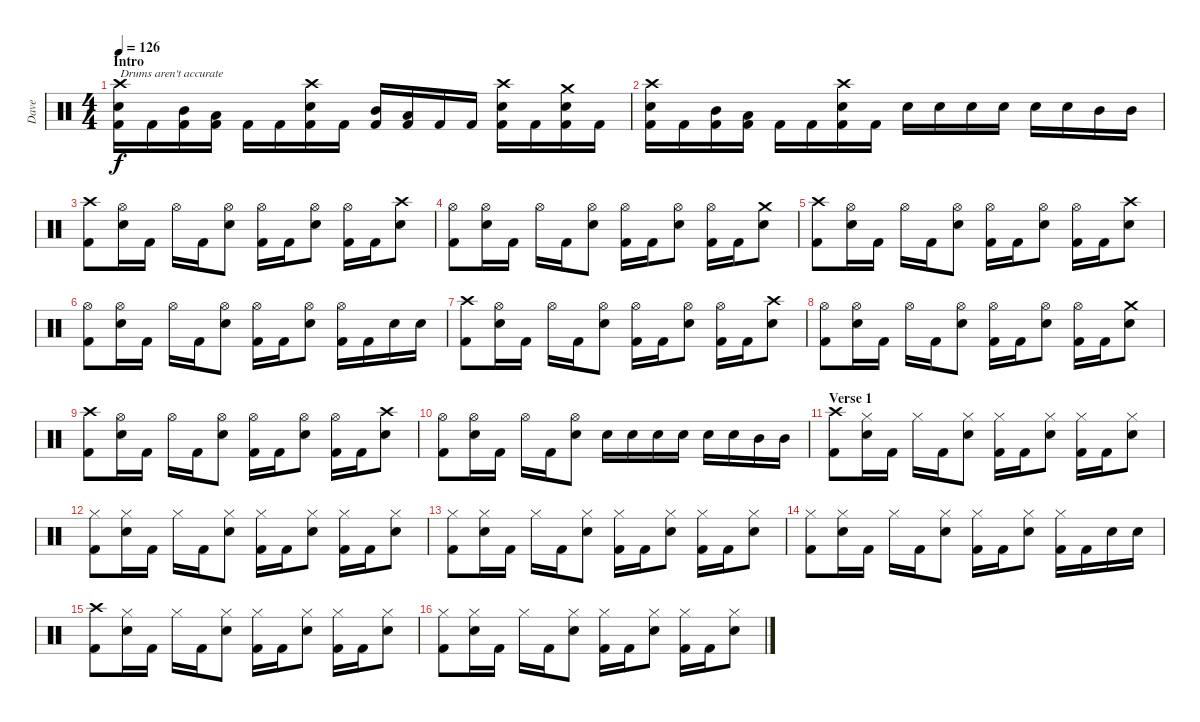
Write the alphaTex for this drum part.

\track ("Dave" "Dave") {instrument percussion}
\staff {score}
\articulation defaults
\ts (4 4)
\section ("" "Intro")
\tempo 126
\clef neutral
\ks c
("Kick (hit) 2" "Electric Snare (hit)" "Crash high (hit)").16{txt "Drums aren't accurate" dy f} "Kick (hit) 2".16 ("Kick (hit) 2" "Mid Tom (hit)").16 ("Kick (hit) 2" "Low Tom (hit)").16 "Kick (hit) 2".16 "Kick (hit) 2".16 ("Kick (hit) 2" "Electric Snare (hit)" "Crash high (hit)").16 "Kick (hit) 2".16 ("Kick (hit) 2" "Mid Tom (hit)").16 ("Kick (hit) 2" "Low Tom (hit)").16 "Kick (hit) 2".16 "Kick (hit) 2".16 ("Kick (hit) 2" "Electric Snare (hit)" "Crash high (hit)").16 "Kick (hit) 2".16 ("Kick (hit) 2" "Electric Snare (hit)" "Crash medium (hit)").16 "Kick (hit) 2".16 |
("Kick (hit) 2" "Electric Snare (hit)" "Crash high (hit)").16 "Kick (hit) 2".16 ("Kick (hit) 2" "Mid Tom (hit)").16 ("Kick (hit) 2" "Low Tom (hit)").16 "Kick (hit) 2".16 "Kick (hit) 2".16 ("Kick (hit) 2" "Electric Snare (hit)" "Crash high (hit)").16 "Kick (hit) 2".16 "Electric Snare (hit)".16 "Electric Snare (hit)".16 "Electric Snare (hit)".16 "Electric Snare (hit)".16 "Electric Snare (hit)".16 "Electric Snare (hit)".16 "Mid Tom (hit)".16 "Mid Tom (hit)".16 |
("Kick (hit) 2" "Crash high (hit)").8 ("Electric Snare (hit)" "Hi-Hat (open)").16 "Kick (hit) 2".16 "Hi-Hat (open)".16 "Kick (hit) 2".16 ("Electric Snare (hit)" "Hi-Hat (open)").8 ("Kick (hit) 2" "Hi-Hat (open)").16 "Kick (hit) 2".16 ("Electric Snare (hit)" "Hi-Hat (open)").8 ("Kick (hit) 2" "Hi-Hat (open)").16 "Kick (hit) 2".16 ("Electric Snare (hit)" "Crash high (hit)").8 |
("Kick (hit) 2" "Hi-Hat (open)").8 ("Electric Snare (hit)" "Hi-Hat (open)").16 "Kick (hit) 2".16 "Hi-Hat (open)".16 "Kick (hit) 2".16 ("Electric Snare (hit)" "Hi-Hat (open)").8 ("Kick (hit) 2" "Hi-Hat (open)").16 "Kick (hit) 2".16 ("Electric Snare (hit)" "Hi-Hat (open)").8 ("Kick (hit) 2" "Hi-Hat (open)").16 "Kick (hit) 2".16 ("Electric Snare (hit)" "Crash medium (hit)").8 |
("Kick (hit) 2" "Crash high (hit)").8 ("Electric Snare (hit)" "Hi-Hat (open)").16 "Kick (hit) 2".16 "Hi-Hat (open)".16 "Kick (hit) 2".16 ("Electric Snare (hit)" "Hi-Hat (open)").8 ("Kick (hit) 2" "Hi-Hat (open)").16 "Kick (hit) 2".16 ("Electric Snare (hit)" "Hi-Hat (open)").8 ("Kick (hit) 2" "Hi-Hat (open)").16 "Kick (hit) 2".16 ("Electric Snare (hit)" "Crash high (hit)").8 |
("Kick (hit) 2" "Hi-Hat (open)").8 ("Electric Snare (hit)" "Hi-Hat (open)").16 "Kick (hit) 2".16 "Hi-Hat (open)".16 "Kick (hit) 2".16 ("Electric Snare (hit)" "Hi-Hat (open)").8 ("Kick (hit) 2" "Hi-Hat (open)").16 "Kick (hit) 2".16 ("Electric Snare (hit)" "Hi-Hat (open)").8 ("Kick (hit) 2" "Hi-Hat (open)").16 "Kick (hit) 2".16 "Electric Snare (hit)".16 "Electric Snare (hit)".16 |
("Kick (hit) 2" "Crash high (hit)").8 ("Electric Snare (hit)" "Hi-Hat (open)").16 "Kick (hit) 2".16 "Hi-Hat (open)".16 "Kick (hit) 2".16 ("Electric Snare (hit)" "Hi-Hat (open)").8 ("Kick (hit) 2" "Hi-Hat (open)").16 "Kick (hit) 2".16 ("Electric Snare (hit)" "Hi-Hat (open)").8 ("Kick (hit) 2" "Hi-Hat (open)").16 "Kick (hit) 2".16 ("Electric Snare (hit)" "Crash high (hit)").8 |
("Kick (hit) 2" "Hi-Hat (open)").8 ("Electric Snare (hit)" "Hi-Hat (open)").16 "Kick (hit) 2".16 "Hi-Hat (open)".16 "Kick (hit) 2".16 ("Electric Snare (hit)" "Hi-Hat (open)").8 ("Kick (hit) 2" "Hi-Hat (open)").16 "Kick (hit) 2".16 ("Electric Snare (hit)" "Hi-Hat (open)").8 ("Kick (hit) 2" "Hi-Hat (open)").16 "Kick (hit) 2".16 ("Electric Snare (hit)" "Crash medium (hit)").8 |
("Kick (hit) 2" "Crash high (hit)").8 ("Electric Snare (hit)" "Hi-Hat (open)").16 "Kick (hit) 2".16 "Hi-Hat (open)".16 "Kick (hit) 2".16 ("Electric Snare (hit)" "Hi-Hat (open)").8 ("Kick (hit) 2" "Hi-Hat (open)").16 "Kick (hit) 2".16 ("Electric Snare (hit)" "Hi-Hat (open)").8 ("Kick (hit) 2" "Hi-Hat (open)").16 "Kick (hit) 2".16 ("Electric Snare (hit)" "Crash high (hit)").8 |
("Kick (hit) 2" "Hi-Hat (open)").8 ("Electric Snare (hit)" "Hi-Hat (open)").16 "Kick (hit) 2".16 "Hi-Hat (open)".16 "Kick (hit) 2".16 ("Electric Snare (hit)" "Hi-Hat (open)").8 "Electric Snare (hit)".16 "Electric Snare (hit)".16 "Electric Snare (hit)".16 "Electric Snare (hit)".16 "Electric Snare (hit)".16 "Electric Snare (hit)".16 "Mid Tom (hit)".16 "Mid Tom (hit)".16 |
\section ("" "Verse 1")
("Kick (hit) 2" "Crash high (hit)").8 ("Electric Snare (hit)" "Hi-Hat (closed)").16 "Kick (hit) 2".16 "Hi-Hat (closed)".16 "Kick (hit) 2".16 ("Electric Snare (hit)" "Hi-Hat (closed)").8 ("Kick (hit) 2" "Hi-Hat (closed)").16 "Kick (hit) 2".16 ("Electric Snare (hit)" "Hi-Hat (closed)").8 ("Kick (hit) 2" "Hi-Hat (closed)").16 "Kick (hit) 2".16 ("Electric Snare (hit)" "Hi-Hat (closed)").8 |
("Kick (hit) 2" "Hi-Hat (closed)").8 ("Electric Snare (hit)" "Hi-Hat (closed)").16 "Kick (hit) 2".16 "Hi-Hat (closed)".16 "Kick (hit) 2".16 ("Electric Snare (hit)" "Hi-Hat (closed)").8 ("Kick (hit) 2" "Hi-Hat (closed)").16 "Kick (hit) 2".16 ("Electric Snare (hit)" "Hi-Hat (closed)").8 ("Kick (hit) 2" "Hi-Hat (closed)").16 "Kick (hit) 2".16 ("Electric Snare (hit)" "Hi-Hat (closed)").8 |
("Kick (hit) 2" "Hi-Hat (closed)").8 ("Electric Snare (hit)" "Hi-Hat (closed)").16 "Kick (hit) 2".16 "Hi-Hat (closed)".16 "Kick (hit) 2".16 ("Electric Snare (hit)" "Hi-Hat (closed)").8 ("Kick (hit) 2" "Hi-Hat (closed)").16 "Kick (hit) 2".16 ("Electric Snare (hit)" "Hi-Hat (closed)").8 ("Kick (hit) 2" "Hi-Hat (closed)").16 "Kick (hit) 2".16 ("Electric Snare (hit)" "Hi-Hat (closed)").8 |
("Kick (hit) 2" "Hi-Hat (closed)").8 ("Electric Snare (hit)" "Hi-Hat (closed)").16 "Kick (hit) 2".16 "Hi-Hat (closed)".16 "Kick (hit) 2".16 ("Electric Snare (hit)" "Hi-Hat (closed)").8 ("Kick (hit) 2" "Hi-Hat (closed)").16 "Kick (hit) 2".16 ("Electric Snare (hit)" "Hi-Hat (closed)").8 ("Kick (hit) 2" "Hi-Hat (closed)").16 "Kick (hit) 2".16 "Electric Snare (hit)".16 "Electric Snare (hit)".16 |
("Kick (hit) 2" "Crash high (hit)").8 ("Electric Snare (hit)" "Hi-Hat (closed)").16 "Kick (hit) 2".16 "Hi-Hat (closed)".16 "Kick (hit) 2".16 ("Electric Snare (hit)" "Hi-Hat (closed)").8 ("Kick (hit) 2" "Hi-Hat (closed)").16 "Kick (hit) 2".16 ("Electric Snare (hit)" "Hi-Hat (closed)").8 ("Kick (hit) 2" "Hi-Hat (closed)").16 "Kick (hit) 2".16 ("Electric Snare (hit)" "Hi-Hat (closed)").8 |
("Kick (hit) 2" "Hi-Hat (closed)").8 ("Electric Snare (hit)" "Hi-Hat (closed)").16 "Kick (hit) 2".16 "Hi-Hat (closed)".16 "Kick (hit) 2".16 ("Electric Snare (hit)" "Hi-Hat (closed)").8 ("Kick (hit) 2" "Hi-Hat (closed)").16 "Kick (hit) 2".16 ("Electric Snare (hit)" "Hi-Hat (closed)").8 ("Kick (hit) 2" "Hi-Hat (closed)").16 "Kick (hit) 2".16 ("Electric Snare (hit)" "Hi-Hat (closed)").8
